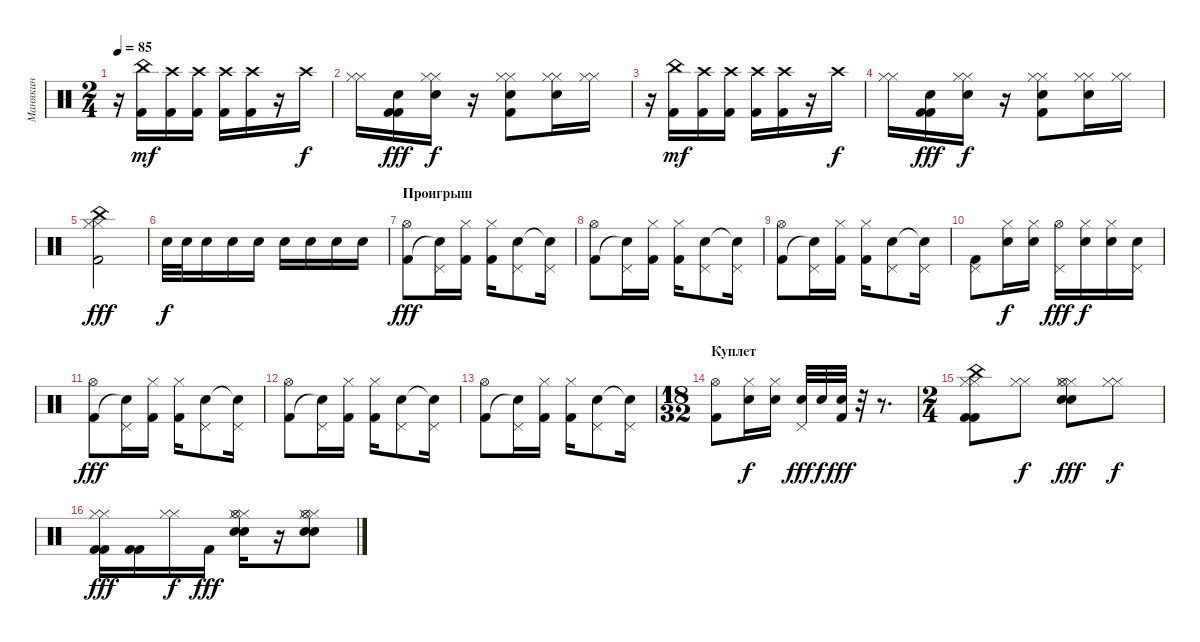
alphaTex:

\track ("Манякин" "Манякин") {instrument percussion}
\staff {score}
\articulation defaults
\ts (2 4)
\tempo 85
\clef neutral
\ks c
r.16{dy f} ("Kick (hit) 2" "China (hit)").16{dy mf} ("Kick (hit) 2" "Crash high (hit)").16 ("Kick (hit) 2" "Crash high (hit)").16 ("Kick (hit) 2" "Crash high (hit)").16 ("Kick (hit) 2" "Crash high (hit)").16 r.16 "Crash high (hit)".16{dy f} |
("Hi-Hat (closed)" "Hi-Hat (closed)").16 ("Snare (hit) 2" "Kick (hit) 2" "Kick (hit) 2").16{dy fff} ("Snare (hit) 2" "Hi-Hat (closed)" "Hi-Hat (closed)").16{dy f} r.16 ("Snare (hit) 2" "Kick (hit) 2" "Hi-Hat (closed)" "Hi-Hat (closed)").8 ("Snare (hit) 2" "Hi-Hat (closed)" "Hi-Hat (closed)").16 ("Hi-Hat (closed)" "Hi-Hat (closed)").16 |
r.16 ("Kick (hit) 2" "China (hit)").16{dy mf} ("Kick (hit) 2" "Crash high (hit)").16 ("Kick (hit) 2" "Crash high (hit)").16 ("Kick (hit) 2" "Crash high (hit)").16 ("Kick (hit) 2" "Crash high (hit)").16 r.16 "Crash high (hit)".16{dy f} |
("Hi-Hat (closed)" "Hi-Hat (closed)").16 ("Snare (hit) 2" "Kick (hit) 2" "Kick (hit) 2").16{dy fff} ("Snare (hit) 2" "Hi-Hat (closed)" "Hi-Hat (closed)").16{dy f} r.16 ("Snare (hit) 2" "Kick (hit) 2" "Hi-Hat (closed)" "Hi-Hat (closed)").8 ("Snare (hit) 2" "Hi-Hat (closed)" "Hi-Hat (closed)").16 ("Hi-Hat (closed)" "Hi-Hat (closed)").16 |
("Kick (hit) 2" "China (hit)" "Hi-Hat (closed)" "Hi-Hat (closed)").2{dy fff} |
"Snare (hit) 2".32{dy f} "Snare (hit) 2".32 "Snare (hit) 2".16 "Snare (hit) 2".16 "Snare (hit) 2".16 "Snare (hit) 2".16 "Snare (hit) 2".16 "Snare (hit) 2".16 "Snare (hit) 2".16 |
\section ("" "Проигрыш")
("Kick (hit) 2" "Hi-Hat (open)").8{dy fff} ("Snare (hit)"{t} "Pedal Hi-Hat (hit)").16 ("Kick (hit) 2" "Hi-Hat (closed)").16 ("Kick (hit) 2" "Hi-Hat (closed)").16 ("Snare (hit) 2" "Pedal Hi-Hat (hit)").8 ("Snare (hit)"{t} "Pedal Hi-Hat (hit)").16 |
("Kick (hit) 2" "Hi-Hat (open)").8 ("Snare (hit)"{t} "Pedal Hi-Hat (hit)").16 ("Kick (hit) 2" "Hi-Hat (closed)").16 ("Kick (hit) 2" "Hi-Hat (closed)").16 ("Snare (hit) 2" "Pedal Hi-Hat (hit)").8 ("Snare (hit)"{t} "Pedal Hi-Hat (hit)").16 |
("Kick (hit) 2" "Hi-Hat (open)").8 ("Snare (hit)"{t} "Pedal Hi-Hat (hit)").16 ("Kick (hit) 2" "Hi-Hat (closed)").16 ("Kick (hit) 2" "Hi-Hat (closed)").16 ("Snare (hit) 2" "Pedal Hi-Hat (hit)").8 ("Snare (hit)"{t} "Pedal Hi-Hat (hit)").16 |
("Kick (hit) 2" "Pedal Hi-Hat (hit)").8 ("Snare (hit) 2" "Hi-Hat (closed)").16{dy f} ("Snare (hit) 2" "Hi-Hat (closed)").16 ("Hi-Hat (open)" "Pedal Hi-Hat (hit)").16{dy fff} ("Snare (hit) 2" "Hi-Hat (closed)").16{dy f} ("Snare (hit) 2" "Hi-Hat (closed)").16 ("Snare (hit) 2" "Pedal Hi-Hat (hit)").16 |
("Kick (hit) 2" "Hi-Hat (open)").8{dy fff} ("Snare (hit)"{t} "Pedal Hi-Hat (hit)").16 ("Kick (hit) 2" "Hi-Hat (closed)").16 ("Kick (hit) 2" "Hi-Hat (closed)").16 ("Snare (hit) 2" "Pedal Hi-Hat (hit)").8 ("Snare (hit)"{t} "Pedal Hi-Hat (hit)").16 |
("Kick (hit) 2" "Hi-Hat (open)").8 ("Snare (hit)"{t} "Pedal Hi-Hat (hit)").16 ("Kick (hit) 2" "Hi-Hat (closed)").16 ("Kick (hit) 2" "Hi-Hat (closed)").16 ("Snare (hit) 2" "Pedal Hi-Hat (hit)").8 ("Snare (hit)"{t} "Pedal Hi-Hat (hit)").16 |
("Kick (hit) 2" "Hi-Hat (open)").8 ("Snare (hit)"{t} "Pedal Hi-Hat (hit)").16 ("Kick (hit) 2" "Hi-Hat (closed)").16 ("Kick (hit) 2" "Hi-Hat (closed)").16 ("Snare (hit) 2" "Pedal Hi-Hat (hit)").8 ("Snare (hit)"{t} "Pedal Hi-Hat (hit)").16 |
\ts (18 32)
\section ("" "Куплет")
("Kick (hit) 2" "Hi-Hat (open)").8 ("Snare (hit) 2" "Hi-Hat (closed)").16{dy f} ("Snare (hit) 2" "Hi-Hat (closed)").16 ("Snare (hit) 2" "Pedal Hi-Hat (hit)").32{dy fff} "Snare (hit) 2".32{dy f} ("Snare (hit) 2" "Kick (hit) 2").32{dy fff} r.32 r.8{d} |
\ts (2 4)
("Kick (hit) 2" "Kick (hit) 2" "Hi-Hat (closed)" "Hi-Hat (closed)" "China (hit)").8 ("Hi-Hat (closed)" "Hi-Hat (closed)").8{dy f} ("Snare (hit) 2" "Snare (hit) 2" "Hi-Hat (closed)" "Hi-Hat (closed)" "Hi-Hat (open)").8{dy fff} ("Hi-Hat (closed)" "Hi-Hat (closed)").8{dy f} |
("Kick (hit) 2" "Kick (hit) 2" "Hi-Hat (closed)" "Hi-Hat (closed)").16{dy fff} ("Kick (hit) 2" "Kick (hit) 2").16 ("Hi-Hat (closed)" "Hi-Hat (closed)").16{dy f} "Kick (hit) 2".16{dy fff} ("Snare (hit) 2" "Snare (hit) 2" "Hi-Hat (closed)" "Hi-Hat (closed)" "Hi-Hat (open)").16 r.16 ("Snare (hit) 2" "Snare (hit) 2" "Hi-Hat (closed)" "Hi-Hat (closed)" "Hi-Hat (open)").8
